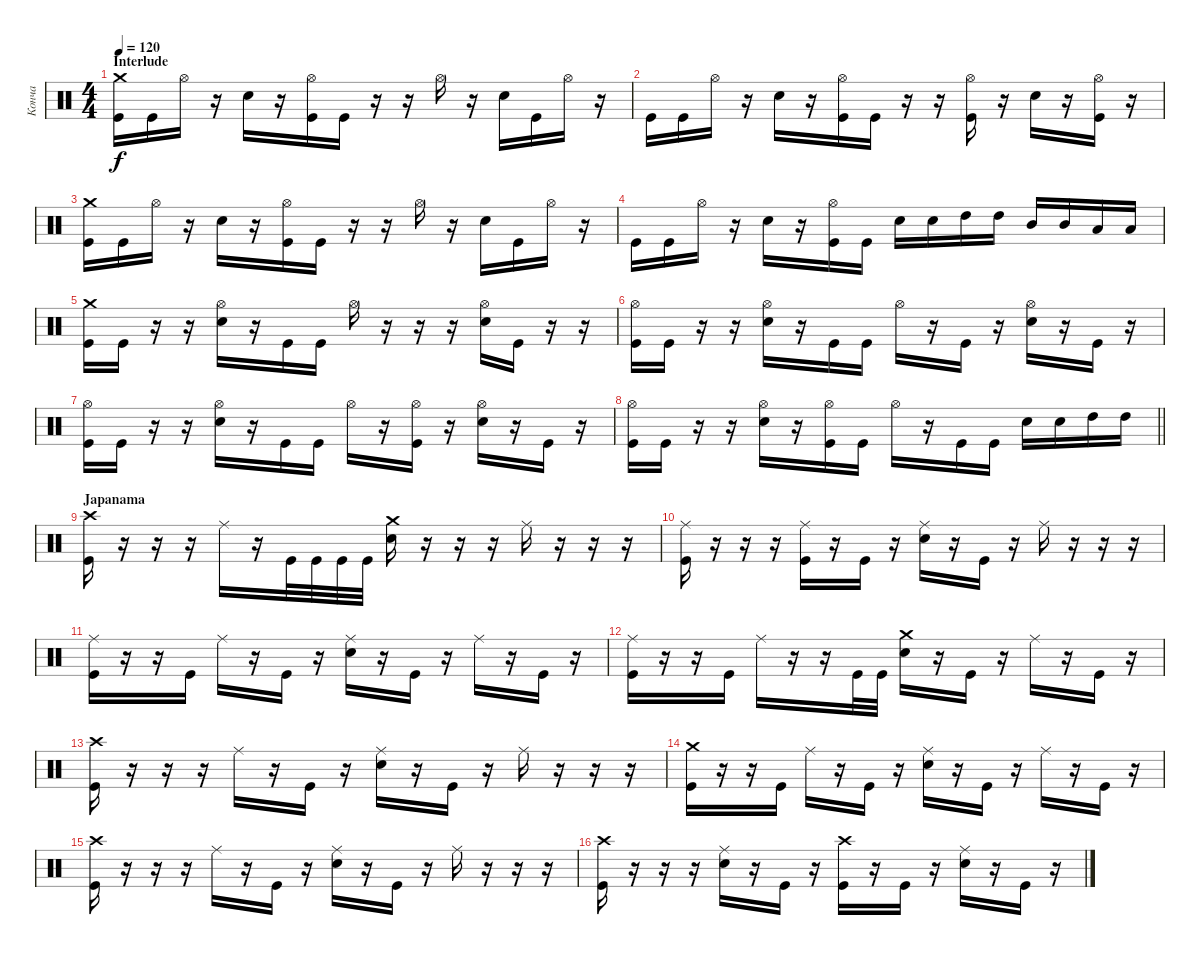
\track ("Конча" "Конча") {instrument percussion}
\staff {score}
\articulation defaults
\ts (4 4)
\section ("" "Interlude")
\tempo 120
\clef neutral
\ks c
("Kick (hit)" "Crash medium (hit)").16{dy f} "Kick (hit)".16 "Hi-Hat (open)".16 r.16 "Electric Snare (hit)".16 r.16 ("Kick (hit)" "Hi-Hat (open)").16 "Kick (hit)".16 r.16 r.16 "Hi-Hat (open)".16 r.16 "Electric Snare (hit)".16 "Kick (hit)".16 "Hi-Hat (open)".16 r.16 |
"Kick (hit)".16 "Kick (hit)".16 "Hi-Hat (open)".16 r.16 "Electric Snare (hit)".16 r.16 ("Kick (hit)" "Hi-Hat (open)").16 "Kick (hit)".16 r.16 r.16 ("Kick (hit)" "Hi-Hat (open)").16 r.16 "Electric Snare (hit)".16 r.16 ("Kick (hit)" "Hi-Hat (open)").16 r.16 |
("Kick (hit)" "Crash medium (hit)").16 "Kick (hit)".16 "Hi-Hat (open)".16 r.16 "Electric Snare (hit)".16 r.16 ("Kick (hit)" "Hi-Hat (open)").16 "Kick (hit)".16 r.16 r.16 "Hi-Hat (open)".16 r.16 "Electric Snare (hit)".16 "Kick (hit)".16 "Hi-Hat (open)".16 r.16 |
"Kick (hit)".16 "Kick (hit)".16 "Hi-Hat (open)".16 r.16 "Electric Snare (hit)".16 r.16 ("Kick (hit)" "Hi-Hat (open)").16 "Kick (hit)".16 "Electric Snare (hit)".16 "Electric Snare (hit)".16 "High Tom (hit)".16 "High Tom (hit)".16 "Mid Tom (hit)".16 "Mid Tom (hit)".16 "Low Tom (hit)".16 "Low Tom (hit)".16 |
("Kick (hit)" "Crash medium (hit)").16 "Kick (hit)".16 r.16 r.16 ("Electric Snare (hit)" "Hi-Hat (open)").16 r.16 "Kick (hit)".16 "Kick (hit)".16 "Hi-Hat (open)".16 r.16 r.16 r.16 ("Electric Snare (hit)" "Hi-Hat (open)").16 "Kick (hit)".16 r.16 r.16 |
("Kick (hit)" "Hi-Hat (open)").16 "Kick (hit)".16 r.16 r.16 ("Electric Snare (hit)" "Hi-Hat (open)").16 r.16 "Kick (hit)".16 "Kick (hit)".16 "Hi-Hat (open)".16 r.16 "Kick (hit)".16 r.16 ("Electric Snare (hit)" "Hi-Hat (open)").16 r.16 "Kick (hit)".16 r.16 |
("Kick (hit)" "Hi-Hat (open)").16 "Kick (hit)".16 r.16 r.16 ("Electric Snare (hit)" "Hi-Hat (open)").16 r.16 "Kick (hit)".16 "Kick (hit)".16 "Hi-Hat (open)".16 r.16 ("Kick (hit)" "Hi-Hat (open)").16 r.16 ("Electric Snare (hit)" "Hi-Hat (open)").16 r.16 "Kick (hit)".16 r.16 |
\barLineRight lightlight
("Kick (hit)" "Hi-Hat (open)").16 "Kick (hit)".16 r.16 r.16 ("Electric Snare (hit)" "Hi-Hat (open)").16 r.16 ("Kick (hit)" "Hi-Hat (open)").16 "Kick (hit)".16 "Hi-Hat (open)".16 r.16 "Kick (hit)".16 "Kick (hit)".16 "Electric Snare (hit)".16 "Electric Snare (hit)".16 "High Tom (hit)".16 "High Tom (hit)".16 |
\section ("" "Japanama")
("Crash high (hit)" "Kick (hit)").16 r.16 r.16 r.16 "Ride (middle)".16 r.16 "Kick (hit)".32 "Kick (hit)".32 "Kick (hit)".32 "Kick (hit)".32 ("Crash medium (hit)" "Electric Snare (hit)").16 r.16 r.16 r.16 "Ride (middle)".16 r.16 r.16 r.16 |
("Ride (middle)" "Kick (hit)").16 r.16 r.16 r.16 ("Ride (middle)" "Kick (hit)").16 r.16 "Kick (hit)".16 r.16 ("Ride (middle)" "Electric Snare (hit)").16 r.16 "Kick (hit)".16 r.16 "Ride (middle)".16 r.16 r.16 r.16 |
("Ride (middle)" "Kick (hit)").16 r.16 r.16 "Kick (hit)".16 "Ride (middle)".16 r.16 "Kick (hit)".16 r.16 ("Ride (middle)" "Electric Snare (hit)").16 r.16 "Kick (hit)".16 r.16 "Ride (middle)".16 r.16 "Kick (hit)".16 r.16 |
("Ride (middle)" "Kick (hit)").16 r.16 r.16 "Kick (hit)".16 "Ride (middle)".16 r.16 r.16 "Kick (hit)".32 "Kick (hit)".32 ("Crash medium (hit)" "Electric Snare (hit)").16 r.16 "Kick (hit)".16 r.16 "Ride (middle)".16 r.16 "Kick (hit)".16 r.16 |
("Crash high (hit)" "Kick (hit)").16 r.16 r.16 r.16 "Ride (middle)".16 r.16 "Kick (hit)".16 r.16 ("Ride (middle)" "Electric Snare (hit)").16 r.16 "Kick (hit)".16 r.16 "Ride (middle)".16 r.16 r.16 r.16 |
("Crash medium (hit)" "Kick (hit)").16 r.16 r.16 "Kick (hit)".16 "Ride (middle)".16 r.16 "Kick (hit)".16 r.16 ("Ride (middle)" "Electric Snare (hit)").16 r.16 "Kick (hit)".16 r.16 "Ride (middle)".16 r.16 "Kick (hit)".16 r.16 |
("Crash high (hit)" "Kick (hit)").16 r.16 r.16 r.16 "Ride (middle)".16 r.16 "Kick (hit)".16 r.16 ("Ride (middle)" "Electric Snare (hit)").16 r.16 "Kick (hit)".16 r.16 "Ride (middle)".16 r.16 r.16 r.16 |
("Crash high (hit)" "Kick (hit)").16 r.16 r.16 r.16 ("Ride (middle)" "Electric Snare (hit)").16 r.16 "Kick (hit)".16 r.16 ("Crash high (hit)" "Kick (hit)").16 r.16 "Kick (hit)".16 r.16 ("Ride (middle)" "Electric Snare (hit)").16 r.16 "Kick (hit)".16 r.16
